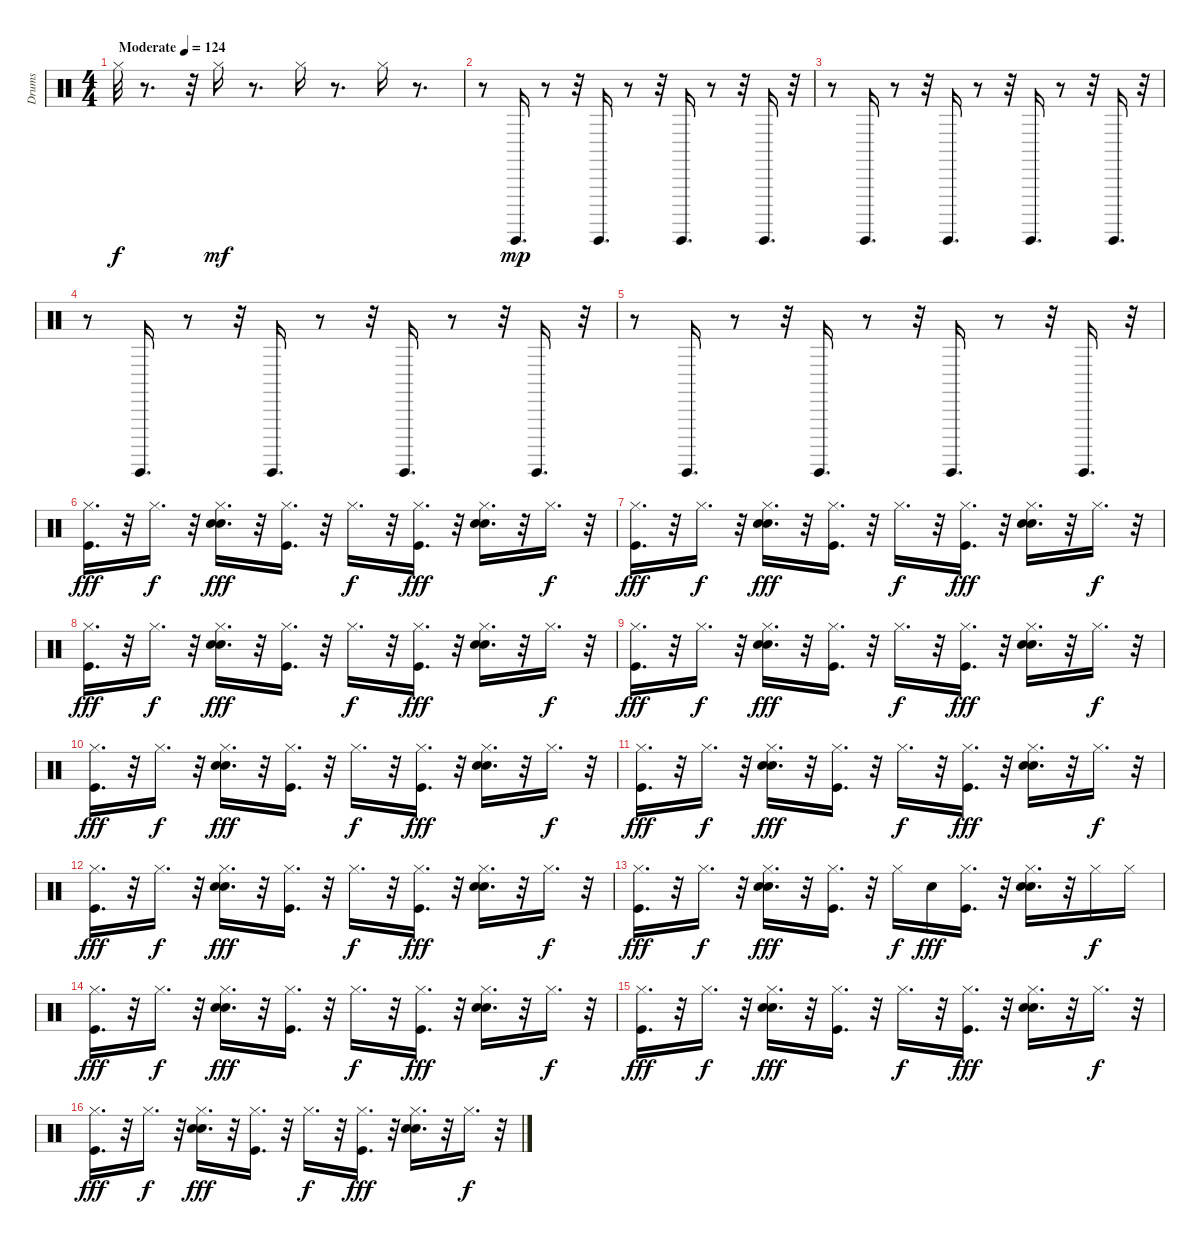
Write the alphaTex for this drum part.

\track ("Drums" "Drums") {instrument percussion}
\staff {score}
\articulation defaults
\ts (4 4)
\tempo (124 "Moderate")
\clef neutral
\ks c "Hi-Hat (closed)".32{dy f}
r.8{d} r.32 "Hi-Hat (closed)".16{dy mf} r.8{d} "Hi-Hat (closed)".16 r.8{d} "Hi-Hat (closed)".16 r.8{d} |
r.8 "Guiro (hit)".16{d dy mp} r.8 r.32 "Guiro (hit)".16{d} r.8 r.32 "Guiro (hit)".16{d} r.8 r.32 "Guiro (hit)".16{d} r.32 |
r.8 "Guiro (hit)".16{d} r.8 r.32 "Guiro (hit)".16{d} r.8 r.32 "Guiro (hit)".16{d} r.8 r.32 "Guiro (hit)".16{d} r.32 |
r.8 "Guiro (hit)".16{d} r.8 r.32 "Guiro (hit)".16{d} r.8 r.32 "Guiro (hit)".16{d} r.8 r.32 "Guiro (hit)".16{d} r.32 |
r.8 "Guiro (hit)".16{d} r.8 r.32 "Guiro (hit)".16{d} r.8 r.32 "Guiro (hit)".16{d} r.8 r.32 "Guiro (hit)".16{d} r.32 |
("Kick (hit)" "Hi-Hat (closed)").16{d dy fff} r.32 "Hi-Hat (closed)".16{d dy f} r.32 ("Snare (hit) 2" "Hand Clap (hit)" "Hi-Hat (closed)").16{d dy fff} r.32 ("Kick (hit)" "Hi-Hat (closed)").16{d} r.32 "Hi-Hat (closed)".16{d dy f} r.32 ("Kick (hit)" "Hi-Hat (closed)").16{d dy fff} r.32 ("Snare (hit) 2" "Hand Clap (hit)" "Hi-Hat (closed)").16{d} r.32 "Hi-Hat (closed)".16{d dy f} r.32 |
("Kick (hit)" "Hi-Hat (closed)").16{d dy fff} r.32 "Hi-Hat (closed)".16{d dy f} r.32 ("Snare (hit) 2" "Hand Clap (hit)" "Hi-Hat (closed)").16{d dy fff} r.32 ("Kick (hit)" "Hi-Hat (closed)").16{d} r.32 "Hi-Hat (closed)".16{d dy f} r.32 ("Kick (hit)" "Hi-Hat (closed)").16{d dy fff} r.32 ("Snare (hit) 2" "Hand Clap (hit)" "Hi-Hat (closed)").16{d} r.32 "Hi-Hat (closed)".16{d dy f} r.32 |
("Kick (hit)" "Hi-Hat (closed)").16{d dy fff} r.32 "Hi-Hat (closed)".16{d dy f} r.32 ("Snare (hit) 2" "Hand Clap (hit)" "Hi-Hat (closed)").16{d dy fff} r.32 ("Kick (hit)" "Hi-Hat (closed)").16{d} r.32 "Hi-Hat (closed)".16{d dy f} r.32 ("Kick (hit)" "Hi-Hat (closed)").16{d dy fff} r.32 ("Snare (hit) 2" "Hand Clap (hit)" "Hi-Hat (closed)").16{d} r.32 "Hi-Hat (closed)".16{d dy f} r.32 |
("Kick (hit)" "Hi-Hat (closed)").16{d dy fff} r.32 "Hi-Hat (closed)".16{d dy f} r.32 ("Snare (hit) 2" "Hand Clap (hit)" "Hi-Hat (closed)").16{d dy fff} r.32 ("Kick (hit)" "Hi-Hat (closed)").16{d} r.32 "Hi-Hat (closed)".16{d dy f} r.32 ("Kick (hit)" "Hi-Hat (closed)").16{d dy fff} r.32 ("Snare (hit) 2" "Hand Clap (hit)" "Hi-Hat (closed)").16{d} r.32 "Hi-Hat (closed)".16{d dy f} r.32 |
("Kick (hit)" "Hi-Hat (closed)").16{d dy fff} r.32 "Hi-Hat (closed)".16{d dy f} r.32 ("Snare (hit) 2" "Hand Clap (hit)" "Hi-Hat (closed)").16{d dy fff} r.32 ("Kick (hit)" "Hi-Hat (closed)").16{d} r.32 "Hi-Hat (closed)".16{d dy f} r.32 ("Kick (hit)" "Hi-Hat (closed)").16{d dy fff} r.32 ("Snare (hit) 2" "Hand Clap (hit)" "Hi-Hat (closed)").16{d} r.32 "Hi-Hat (closed)".16{d dy f} r.32 |
("Kick (hit)" "Hi-Hat (closed)").16{d dy fff} r.32 "Hi-Hat (closed)".16{d dy f} r.32 ("Snare (hit) 2" "Hand Clap (hit)" "Hi-Hat (closed)").16{d dy fff} r.32 ("Kick (hit)" "Hi-Hat (closed)").16{d} r.32 "Hi-Hat (closed)".16{d dy f} r.32 ("Kick (hit)" "Hi-Hat (closed)").16{d dy fff} r.32 ("Snare (hit) 2" "Hand Clap (hit)" "Hi-Hat (closed)").16{d} r.32 "Hi-Hat (closed)".16{d dy f} r.32 |
("Kick (hit)" "Hi-Hat (closed)").16{d dy fff} r.32 "Hi-Hat (closed)".16{d dy f} r.32 ("Snare (hit) 2" "Hand Clap (hit)" "Hi-Hat (closed)").16{d dy fff} r.32 ("Kick (hit)" "Hi-Hat (closed)").16{d} r.32 "Hi-Hat (closed)".16{d dy f} r.32 ("Kick (hit)" "Hi-Hat (closed)").16{d dy fff} r.32 ("Snare (hit) 2" "Hand Clap (hit)" "Hi-Hat (closed)").16{d} r.32 "Hi-Hat (closed)".16{d dy f} r.32 |
("Kick (hit)" "Hi-Hat (closed)").16{d dy fff} r.32 "Hi-Hat (closed)".16{d dy f} r.32 ("Snare (hit) 2" "Hand Clap (hit)" "Hi-Hat (closed)").16{d dy fff} r.32 ("Kick (hit)" "Hi-Hat (closed)").16{d} r.32 "Hi-Hat (closed)".16{dy f} "Snare (hit) 2".16{dy fff} ("Kick (hit)" "Hi-Hat (closed)").16{d} r.32 ("Snare (hit) 2" "Hand Clap (hit)" "Hi-Hat (closed)").16{d} r.32 "Hi-Hat (closed)".16{dy f} "Hi-Hat (closed)".16 |
("Kick (hit)" "Hi-Hat (closed)").16{d dy fff} r.32 "Hi-Hat (closed)".16{d dy f} r.32 ("Snare (hit) 2" "Hand Clap (hit)" "Hi-Hat (closed)").16{d dy fff} r.32 ("Kick (hit)" "Hi-Hat (closed)").16{d} r.32 "Hi-Hat (closed)".16{d dy f} r.32 ("Kick (hit)" "Hi-Hat (closed)").16{d dy fff} r.32 ("Snare (hit) 2" "Hand Clap (hit)" "Hi-Hat (closed)").16{d} r.32 "Hi-Hat (closed)".16{d dy f} r.32 |
("Kick (hit)" "Hi-Hat (closed)").16{d dy fff} r.32 "Hi-Hat (closed)".16{d dy f} r.32 ("Snare (hit) 2" "Hand Clap (hit)" "Hi-Hat (closed)").16{d dy fff} r.32 ("Kick (hit)" "Hi-Hat (closed)").16{d} r.32 "Hi-Hat (closed)".16{d dy f} r.32 ("Kick (hit)" "Hi-Hat (closed)").16{d dy fff} r.32 ("Snare (hit) 2" "Hand Clap (hit)" "Hi-Hat (closed)").16{d} r.32 "Hi-Hat (closed)".16{d dy f} r.32 |
("Kick (hit)" "Hi-Hat (closed)").16{d dy fff} r.32 "Hi-Hat (closed)".16{d dy f} r.32 ("Snare (hit) 2" "Hand Clap (hit)" "Hi-Hat (closed)").16{d dy fff} r.32 ("Kick (hit)" "Hi-Hat (closed)").16{d} r.32 "Hi-Hat (closed)".16{d dy f} r.32 ("Kick (hit)" "Hi-Hat (closed)").16{d dy fff} r.32 ("Snare (hit) 2" "Hand Clap (hit)" "Hi-Hat (closed)").16{d} r.32 "Hi-Hat (closed)".16{d dy f} r.32
